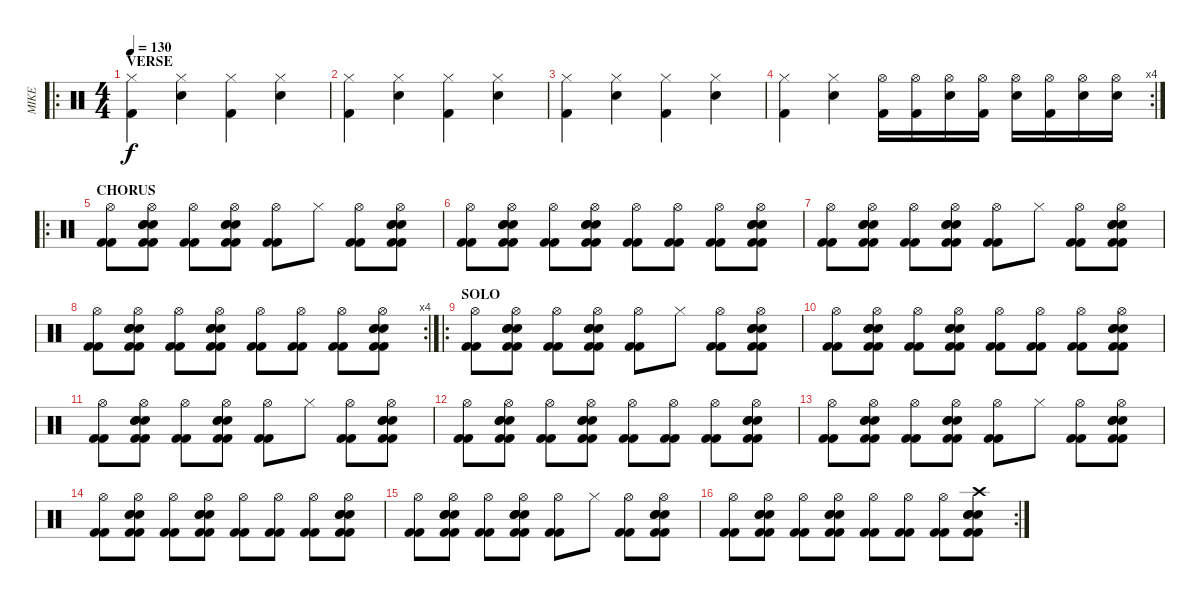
\track ("MIKE" "MIKE") {instrument percussion}
\staff {score}
\articulation defaults
\ro
\ts (4 4)
\section ("" "VERSE")
\tempo 130
\clef neutral
\ks c
("Hi-Hat (closed)" "Kick (hit) 2").4{dy f} ("Hi-Hat (closed)" "Electric Snare (hit)").4 ("Hi-Hat (closed)" "Kick (hit) 2").4 ("Hi-Hat (closed)" "Electric Snare (hit)").4 |
("Hi-Hat (closed)" "Kick (hit) 2").4 ("Hi-Hat (closed)" "Electric Snare (hit)").4 ("Hi-Hat (closed)" "Kick (hit) 2").4 ("Hi-Hat (closed)" "Electric Snare (hit)").4 |
("Hi-Hat (closed)" "Kick (hit) 2").4 ("Hi-Hat (closed)" "Electric Snare (hit)").4 ("Hi-Hat (closed)" "Kick (hit) 2").4 ("Hi-Hat (closed)" "Electric Snare (hit)").4 |
\rc 4
("Hi-Hat (closed)" "Kick (hit) 2").4 ("Hi-Hat (closed)" "Electric Snare (hit)").4 ("Hi-Hat (open)" "Kick (hit) 2").16 ("Hi-Hat (open)" "Kick (hit) 2").16 ("Hi-Hat (open)" "Electric Snare (hit)").16 ("Hi-Hat (open)" "Kick (hit) 2").16 ("Hi-Hat (open)" "Electric Snare (hit)").16 ("Hi-Hat (open)" "Kick (hit) 2").16 ("Hi-Hat (open)" "Electric Snare (hit)").16 ("Hi-Hat (open)" "Electric Snare (hit)").16 |
\ro
\section ("" "CHORUS")
("Kick (hit) 2" "Hi-Hat (open)" "Kick (hit) 2").8 ("Kick (hit) 2" "Kick (hit) 2" "Electric Snare (hit)" "Electric Snare (hit)" "Hi-Hat (open)" "Electric Snare (hit)").8 ("Kick (hit) 2" "Hi-Hat (open)" "Kick (hit) 2").8 ("Kick (hit) 2" "Kick (hit) 2" "Electric Snare (hit)" "Electric Snare (hit)" "Hi-Hat (open)" "Electric Snare (hit)").8 ("Kick (hit) 2" "Hi-Hat (open)" "Kick (hit) 2").8 "Hi-Hat (closed)".8 ("Kick (hit) 2" "Hi-Hat (open)" "Kick (hit) 2").8 ("Kick (hit) 2" "Kick (hit) 2" "Electric Snare (hit)" "Electric Snare (hit)" "Hi-Hat (open)" "Electric Snare (hit)").8 |
("Kick (hit) 2" "Hi-Hat (open)" "Kick (hit) 2").8 ("Kick (hit) 2" "Kick (hit) 2" "Electric Snare (hit)" "Electric Snare (hit)" "Hi-Hat (open)" "Electric Snare (hit)").8 ("Kick (hit) 2" "Hi-Hat (open)" "Kick (hit) 2").8 ("Kick (hit) 2" "Kick (hit) 2" "Electric Snare (hit)" "Electric Snare (hit)" "Hi-Hat (open)" "Electric Snare (hit)").8 ("Kick (hit) 2" "Hi-Hat (open)" "Kick (hit) 2").8 ("Kick (hit) 2" "Hi-Hat (open)" "Kick (hit) 2").8 ("Kick (hit) 2" "Hi-Hat (open)" "Kick (hit) 2").8 ("Kick (hit) 2" "Kick (hit) 2" "Electric Snare (hit)" "Electric Snare (hit)" "Hi-Hat (open)" "Electric Snare (hit)").8 |
("Kick (hit) 2" "Hi-Hat (open)" "Kick (hit) 2").8 ("Kick (hit) 2" "Kick (hit) 2" "Electric Snare (hit)" "Electric Snare (hit)" "Hi-Hat (open)" "Electric Snare (hit)").8 ("Kick (hit) 2" "Hi-Hat (open)" "Kick (hit) 2").8 ("Kick (hit) 2" "Kick (hit) 2" "Electric Snare (hit)" "Electric Snare (hit)" "Hi-Hat (open)" "Electric Snare (hit)").8 ("Kick (hit) 2" "Hi-Hat (open)" "Kick (hit) 2").8 "Hi-Hat (closed)".8 ("Kick (hit) 2" "Hi-Hat (open)" "Kick (hit) 2").8 ("Kick (hit) 2" "Kick (hit) 2" "Electric Snare (hit)" "Electric Snare (hit)" "Hi-Hat (open)" "Electric Snare (hit)").8 |
\rc 4
("Kick (hit) 2" "Hi-Hat (open)" "Kick (hit) 2").8 ("Kick (hit) 2" "Kick (hit) 2" "Electric Snare (hit)" "Electric Snare (hit)" "Hi-Hat (open)" "Electric Snare (hit)").8 ("Kick (hit) 2" "Hi-Hat (open)" "Kick (hit) 2").8 ("Kick (hit) 2" "Kick (hit) 2" "Electric Snare (hit)" "Electric Snare (hit)" "Hi-Hat (open)" "Electric Snare (hit)").8 ("Kick (hit) 2" "Hi-Hat (open)" "Kick (hit) 2").8 ("Kick (hit) 2" "Hi-Hat (open)" "Kick (hit) 2").8 ("Kick (hit) 2" "Hi-Hat (open)" "Kick (hit) 2").8 ("Kick (hit) 2" "Kick (hit) 2" "Electric Snare (hit)" "Electric Snare (hit)" "Hi-Hat (open)" "Electric Snare (hit)").8 |
\ro
\section ("" "SOLO")
("Kick (hit) 2" "Hi-Hat (open)" "Kick (hit) 2").8 ("Kick (hit) 2" "Kick (hit) 2" "Electric Snare (hit)" "Electric Snare (hit)" "Hi-Hat (open)" "Electric Snare (hit)").8 ("Kick (hit) 2" "Hi-Hat (open)" "Kick (hit) 2").8 ("Kick (hit) 2" "Kick (hit) 2" "Electric Snare (hit)" "Electric Snare (hit)" "Hi-Hat (open)" "Electric Snare (hit)").8 ("Kick (hit) 2" "Hi-Hat (open)" "Kick (hit) 2").8 "Hi-Hat (closed)".8 ("Kick (hit) 2" "Hi-Hat (open)" "Kick (hit) 2").8 ("Kick (hit) 2" "Kick (hit) 2" "Electric Snare (hit)" "Electric Snare (hit)" "Hi-Hat (open)" "Electric Snare (hit)").8 |
("Kick (hit) 2" "Hi-Hat (open)" "Kick (hit) 2").8 ("Kick (hit) 2" "Kick (hit) 2" "Electric Snare (hit)" "Electric Snare (hit)" "Hi-Hat (open)" "Electric Snare (hit)").8 ("Kick (hit) 2" "Hi-Hat (open)" "Kick (hit) 2").8 ("Kick (hit) 2" "Kick (hit) 2" "Electric Snare (hit)" "Electric Snare (hit)" "Hi-Hat (open)" "Electric Snare (hit)").8 ("Kick (hit) 2" "Hi-Hat (open)" "Kick (hit) 2").8 ("Kick (hit) 2" "Hi-Hat (open)" "Kick (hit) 2").8 ("Kick (hit) 2" "Hi-Hat (open)" "Kick (hit) 2").8 ("Kick (hit) 2" "Kick (hit) 2" "Electric Snare (hit)" "Electric Snare (hit)" "Hi-Hat (open)" "Electric Snare (hit)").8 |
("Kick (hit) 2" "Hi-Hat (open)" "Kick (hit) 2").8 ("Kick (hit) 2" "Kick (hit) 2" "Electric Snare (hit)" "Electric Snare (hit)" "Hi-Hat (open)" "Electric Snare (hit)").8 ("Kick (hit) 2" "Hi-Hat (open)" "Kick (hit) 2").8 ("Kick (hit) 2" "Kick (hit) 2" "Electric Snare (hit)" "Electric Snare (hit)" "Hi-Hat (open)" "Electric Snare (hit)").8 ("Kick (hit) 2" "Hi-Hat (open)" "Kick (hit) 2").8 "Hi-Hat (closed)".8 ("Kick (hit) 2" "Hi-Hat (open)" "Kick (hit) 2").8 ("Kick (hit) 2" "Kick (hit) 2" "Electric Snare (hit)" "Electric Snare (hit)" "Hi-Hat (open)" "Electric Snare (hit)").8 |
("Kick (hit) 2" "Hi-Hat (open)" "Kick (hit) 2").8 ("Kick (hit) 2" "Kick (hit) 2" "Electric Snare (hit)" "Electric Snare (hit)" "Hi-Hat (open)" "Electric Snare (hit)").8 ("Kick (hit) 2" "Hi-Hat (open)" "Kick (hit) 2").8 ("Kick (hit) 2" "Kick (hit) 2" "Electric Snare (hit)" "Electric Snare (hit)" "Hi-Hat (open)" "Electric Snare (hit)").8 ("Kick (hit) 2" "Hi-Hat (open)" "Kick (hit) 2").8 ("Kick (hit) 2" "Hi-Hat (open)" "Kick (hit) 2").8 ("Kick (hit) 2" "Hi-Hat (open)" "Kick (hit) 2").8 ("Kick (hit) 2" "Kick (hit) 2" "Electric Snare (hit)" "Electric Snare (hit)" "Hi-Hat (open)" "Electric Snare (hit)").8 |
("Kick (hit) 2" "Hi-Hat (open)" "Kick (hit) 2").8 ("Kick (hit) 2" "Kick (hit) 2" "Electric Snare (hit)" "Electric Snare (hit)" "Hi-Hat (open)" "Electric Snare (hit)").8 ("Kick (hit) 2" "Hi-Hat (open)" "Kick (hit) 2").8 ("Kick (hit) 2" "Kick (hit) 2" "Electric Snare (hit)" "Electric Snare (hit)" "Hi-Hat (open)" "Electric Snare (hit)").8 ("Kick (hit) 2" "Hi-Hat (open)" "Kick (hit) 2").8 "Hi-Hat (closed)".8 ("Kick (hit) 2" "Hi-Hat (open)" "Kick (hit) 2").8 ("Kick (hit) 2" "Kick (hit) 2" "Electric Snare (hit)" "Electric Snare (hit)" "Hi-Hat (open)" "Electric Snare (hit)").8 |
("Kick (hit) 2" "Hi-Hat (open)" "Kick (hit) 2").8 ("Kick (hit) 2" "Kick (hit) 2" "Electric Snare (hit)" "Electric Snare (hit)" "Hi-Hat (open)" "Electric Snare (hit)").8 ("Kick (hit) 2" "Hi-Hat (open)" "Kick (hit) 2").8 ("Kick (hit) 2" "Kick (hit) 2" "Electric Snare (hit)" "Electric Snare (hit)" "Hi-Hat (open)" "Electric Snare (hit)").8 ("Kick (hit) 2" "Hi-Hat (open)" "Kick (hit) 2").8 ("Kick (hit) 2" "Hi-Hat (open)" "Kick (hit) 2").8 ("Kick (hit) 2" "Hi-Hat (open)" "Kick (hit) 2").8 ("Kick (hit) 2" "Kick (hit) 2" "Electric Snare (hit)" "Electric Snare (hit)" "Hi-Hat (open)" "Electric Snare (hit)").8 |
("Kick (hit) 2" "Hi-Hat (open)" "Kick (hit) 2").8 ("Kick (hit) 2" "Kick (hit) 2" "Electric Snare (hit)" "Electric Snare (hit)" "Hi-Hat (open)" "Electric Snare (hit)").8 ("Kick (hit) 2" "Hi-Hat (open)" "Kick (hit) 2").8 ("Kick (hit) 2" "Kick (hit) 2" "Electric Snare (hit)" "Electric Snare (hit)" "Hi-Hat (open)" "Electric Snare (hit)").8 ("Kick (hit) 2" "Hi-Hat (open)" "Kick (hit) 2").8 "Hi-Hat (closed)".8 ("Kick (hit) 2" "Hi-Hat (open)" "Kick (hit) 2").8 ("Kick (hit) 2" "Kick (hit) 2" "Electric Snare (hit)" "Electric Snare (hit)" "Hi-Hat (open)" "Electric Snare (hit)").8 |
\rc 2
("Kick (hit) 2" "Hi-Hat (open)" "Kick (hit) 2").8 ("Kick (hit) 2" "Kick (hit) 2" "Electric Snare (hit)" "Electric Snare (hit)" "Hi-Hat (open)" "Electric Snare (hit)").8 ("Kick (hit) 2" "Hi-Hat (open)" "Kick (hit) 2").8 ("Kick (hit) 2" "Kick (hit) 2" "Electric Snare (hit)" "Electric Snare (hit)" "Hi-Hat (open)" "Electric Snare (hit)").8 ("Kick (hit) 2" "Hi-Hat (open)" "Kick (hit) 2").8 ("Kick (hit) 2" "Hi-Hat (open)" "Kick (hit) 2").8 ("Kick (hit) 2" "Hi-Hat (open)" "Kick (hit) 2").8 ("Kick (hit) 2" "Kick (hit) 2" "Electric Snare (hit)" "Electric Snare (hit)" "Crash high (hit)" "Electric Snare (hit)").8
